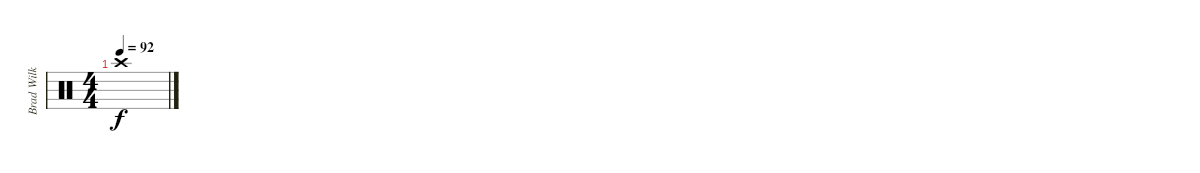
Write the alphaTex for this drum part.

\track ("Brad Wilk" "Brad Wilk") {instrument percussion}
\staff {score}
\articulation defaults
\ts (4 4)
\tempo 92
\clef neutral
\ks c "Crash high (hit)".1{dy f}
